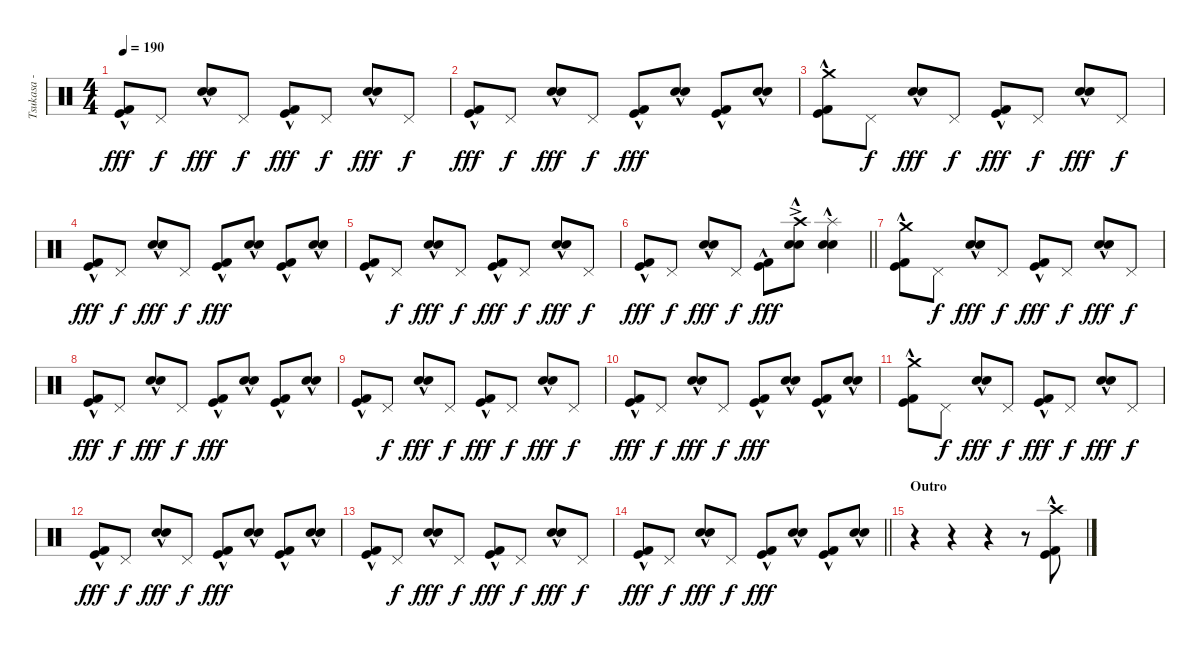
\track ("Tsukasa - Drums" "Tsukasa - ") {instrument percussion}
\staff {score}
\articulation defaults
\ts (4 4)
\tempo 190
\clef neutral
\ks c
("Kick (hit)"{hac} "Kick (hit) 2"{hac}).8{dy fff} "Pedal Hi-Hat (hit)".8{dy f} ("Electric Snare (hit)"{hac} "Snare (hit) 2"{hac}).8{dy fff} "Pedal Hi-Hat (hit)".8{dy f} ("Kick (hit)"{hac} "Kick (hit) 2"{hac}).8{dy fff} "Pedal Hi-Hat (hit)".8{dy f} ("Electric Snare (hit)"{hac} "Snare (hit) 2"{hac}).8{dy fff} "Pedal Hi-Hat (hit)".8{dy f} |
("Kick (hit)"{hac} "Kick (hit) 2"{hac}).8{dy fff} "Pedal Hi-Hat (hit)".8{dy f} ("Electric Snare (hit)"{hac} "Snare (hit) 2"{hac}).8{dy fff} "Pedal Hi-Hat (hit)".8{dy f} ("Kick (hit)"{hac} "Kick (hit) 2"{hac}).8{dy fff} ("Electric Snare (hit)"{hac} "Snare (hit) 2"{hac}).8 ("Kick (hit)"{hac} "Kick (hit) 2"{hac}).8 ("Electric Snare (hit)"{hac} "Snare (hit) 2"{hac}).8 |
("Crash medium (hit)" "Kick (hit)"{hac} "Kick (hit) 2"{hac}).8 "Pedal Hi-Hat (hit)".8{dy f} ("Electric Snare (hit)"{hac} "Snare (hit) 2").8{dy fff} "Pedal Hi-Hat (hit)".8{dy f} ("Kick (hit)"{hac} "Kick (hit) 2"{hac}).8{dy fff} "Pedal Hi-Hat (hit)".8{dy f} ("Electric Snare (hit)"{hac} "Snare (hit) 2").8{dy fff} "Pedal Hi-Hat (hit)".8{dy f} |
("Kick (hit)"{hac} "Kick (hit) 2"{hac}).8{dy fff} "Pedal Hi-Hat (hit)".8{dy f} ("Electric Snare (hit)"{hac} "Snare (hit) 2").8{dy fff} "Pedal Hi-Hat (hit)".8{dy f} ("Kick (hit)"{hac} "Kick (hit) 2"{hac}).8{dy fff} ("Electric Snare (hit)"{hac} "Snare (hit) 2").8 ("Kick (hit)"{hac} "Kick (hit) 2"{hac}).8 ("Electric Snare (hit)"{hac} "Snare (hit) 2").8 |
("Kick (hit)"{hac} "Kick (hit) 2"{hac}).8 "Pedal Hi-Hat (hit)".8{dy f} ("Electric Snare (hit)"{hac} "Snare (hit) 2").8{dy fff} "Pedal Hi-Hat (hit)".8{dy f} ("Kick (hit)"{hac} "Kick (hit) 2"{hac}).8{dy fff} "Pedal Hi-Hat (hit)".8{dy f} ("Electric Snare (hit)"{hac} "Snare (hit) 2").8{dy fff} "Pedal Hi-Hat (hit)".8{dy f} |
\barLineRight lightlight
("Kick (hit)"{hac} "Kick (hit) 2"{hac}).8{dy fff} "Pedal Hi-Hat (hit)".8{dy f} ("Electric Snare (hit)"{hac} "Snare (hit) 2").8{dy fff} "Pedal Hi-Hat (hit)".8{dy f} ("Kick (hit)"{hac} "Kick (hit) 2"{hac}).8{dy fff} ("Crash high (hit)"{ac} "Electric Snare (hit)"{hac} "Snare (hit) 2").8 ("Splash (hit)"{hac} "Electric Snare (hit)"{hac} "Snare (hit) 2").4 |
\section ("" "")
("Crash medium (hit)" "Kick (hit)"{hac} "Kick (hit) 2"{hac}).8 "Pedal Hi-Hat (hit)".8{dy f} ("Electric Snare (hit)"{hac} "Snare (hit) 2"{hac}).8{dy fff} "Pedal Hi-Hat (hit)".8{dy f} ("Kick (hit)"{hac} "Kick (hit) 2"{hac}).8{dy fff} "Pedal Hi-Hat (hit)".8{dy f} ("Electric Snare (hit)"{hac} "Snare (hit) 2").8{dy fff} "Pedal Hi-Hat (hit)".8{dy f} |
("Kick (hit)"{hac} "Kick (hit) 2"{hac}).8{dy fff} "Pedal Hi-Hat (hit)".8{dy f} ("Electric Snare (hit)"{hac} "Snare (hit) 2"{hac}).8{dy fff} "Pedal Hi-Hat (hit)".8{dy f} ("Kick (hit)"{hac} "Kick (hit) 2"{hac}).8{dy fff} ("Electric Snare (hit)"{hac} "Snare (hit) 2"{hac}).8 ("Kick (hit)"{hac} "Kick (hit) 2"{hac}).8 ("Electric Snare (hit)"{hac} "Snare (hit) 2"{hac}).8 |
("Kick (hit)"{hac} "Kick (hit) 2"{hac}).8 "Pedal Hi-Hat (hit)".8{dy f} ("Electric Snare (hit)"{hac} "Snare (hit) 2"{hac}).8{dy fff} "Pedal Hi-Hat (hit)".8{dy f} ("Kick (hit)"{hac} "Kick (hit) 2"{hac}).8{dy fff} "Pedal Hi-Hat (hit)".8{dy f} ("Electric Snare (hit)"{hac} "Snare (hit) 2").8{dy fff} "Pedal Hi-Hat (hit)".8{dy f} |
("Kick (hit)"{hac} "Kick (hit) 2"{hac}).8{dy fff} "Pedal Hi-Hat (hit)".8{dy f} ("Electric Snare (hit)"{hac} "Snare (hit) 2"{hac}).8{dy fff} "Pedal Hi-Hat (hit)".8{dy f} ("Kick (hit)"{hac} "Kick (hit) 2"{hac}).8{dy fff} ("Electric Snare (hit)"{hac} "Snare (hit) 2"{hac}).8 ("Kick (hit)"{hac} "Kick (hit) 2"{hac}).8 ("Electric Snare (hit)"{hac} "Snare (hit) 2"{hac}).8 |
("Crash medium (hit)" "Kick (hit)"{hac} "Kick (hit) 2"{hac}).8 "Pedal Hi-Hat (hit)".8{dy f} ("Electric Snare (hit)"{hac} "Snare (hit) 2"{hac}).8{dy fff} "Pedal Hi-Hat (hit)".8{dy f} ("Kick (hit)"{hac} "Kick (hit) 2"{hac}).8{dy fff} "Pedal Hi-Hat (hit)".8{dy f} ("Electric Snare (hit)"{hac} "Snare (hit) 2").8{dy fff} "Pedal Hi-Hat (hit)".8{dy f} |
("Kick (hit)"{hac} "Kick (hit) 2"{hac}).8{dy fff} "Pedal Hi-Hat (hit)".8{dy f} ("Electric Snare (hit)"{hac} "Snare (hit) 2"{hac}).8{dy fff} "Pedal Hi-Hat (hit)".8{dy f} ("Kick (hit)"{hac} "Kick (hit) 2"{hac}).8{dy fff} ("Electric Snare (hit)"{hac} "Snare (hit) 2"{hac}).8 ("Kick (hit)"{hac} "Kick (hit) 2"{hac}).8 ("Electric Snare (hit)"{hac} "Snare (hit) 2"{hac}).8 |
("Kick (hit)"{hac} "Kick (hit) 2"{hac}).8 "Pedal Hi-Hat (hit)".8{dy f} ("Electric Snare (hit)"{hac} "Snare (hit) 2"{hac}).8{dy fff} "Pedal Hi-Hat (hit)".8{dy f} ("Kick (hit)"{hac} "Kick (hit) 2"{hac}).8{dy fff} "Pedal Hi-Hat (hit)".8{dy f} ("Electric Snare (hit)"{hac} "Snare (hit) 2").8{dy fff} "Pedal Hi-Hat (hit)".8{dy f} |
\barLineRight lightlight
("Kick (hit)"{hac} "Kick (hit) 2"{hac}).8{dy fff} "Pedal Hi-Hat (hit)".8{dy f} ("Electric Snare (hit)"{hac} "Snare (hit) 2"{hac}).8{dy fff} "Pedal Hi-Hat (hit)".8{dy f} ("Kick (hit)"{hac} "Kick (hit) 2"{hac}).8{dy fff} ("Electric Snare (hit)"{hac} "Snare (hit) 2"{hac}).8 ("Kick (hit)"{hac} "Kick (hit) 2"{hac}).8 ("Electric Snare (hit)"{hac} "Snare (hit) 2"{hac}).8 |
\section ("" "Outro")
r.4 r.4 r.4 r.8 ("Crash high (hit)"{hac} "Kick (hit)" "Kick (hit) 2").8
